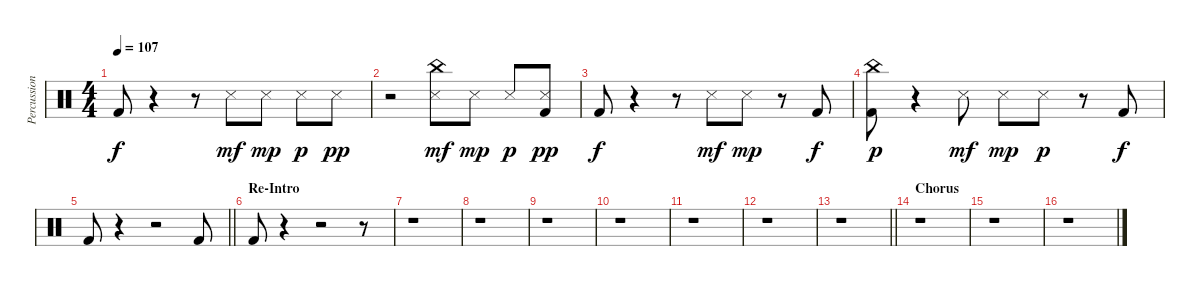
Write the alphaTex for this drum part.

\track ("Percussion" "Percussion") {instrument percussion}
\staff {score}
\articulation defaults
\ts (4 4)
\tempo 107
\clef neutral
\ks c "Kick (hit) 2".8{dy f}
r.4 r.8 "Snare (side stick) 3".8{dy mf} "Snare (side stick) 3".8{dy mp} "Snare (side stick) 3".8{dy p} "Snare (side stick) 3".8{dy pp} |
r.2 ("China (hit)" "Snare (side stick) 3").8{dy mf} "Snare (side stick) 3".8{dy mp} "Snare (side stick) 3".8{dy p} ("Kick (hit) 2" "Snare (side stick) 3").8{dy pp} |
"Kick (hit) 2".8{dy f} r.4 r.8 "Snare (side stick) 3".8{dy mf} "Snare (side stick) 3".8{dy mp} r.8 "Kick (hit) 2".8{dy f} |
("Kick (hit) 2" "China (hit)").8{dy p} r.4 "Snare (side stick) 3".8{dy mf} "Snare (side stick) 3".8{dy mp} "Snare (side stick) 3".8{dy p} r.8 "Kick (hit) 2".8{dy f} |
\barLineRight lightlight "Kick (hit) 2".8
r.4 r.2 "Kick (hit) 2".8 |
\section ("" "Re-Intro")
"Kick (hit) 2".8 r.4 r.2 r.8 |
r.1 |
r.1 |
r.1 |
r.1 |
r.1 |
r.1 |
\barLineRight lightlight
r.1 |
\section ("" "Chorus")
r.1 |
r.1 |
r.1
